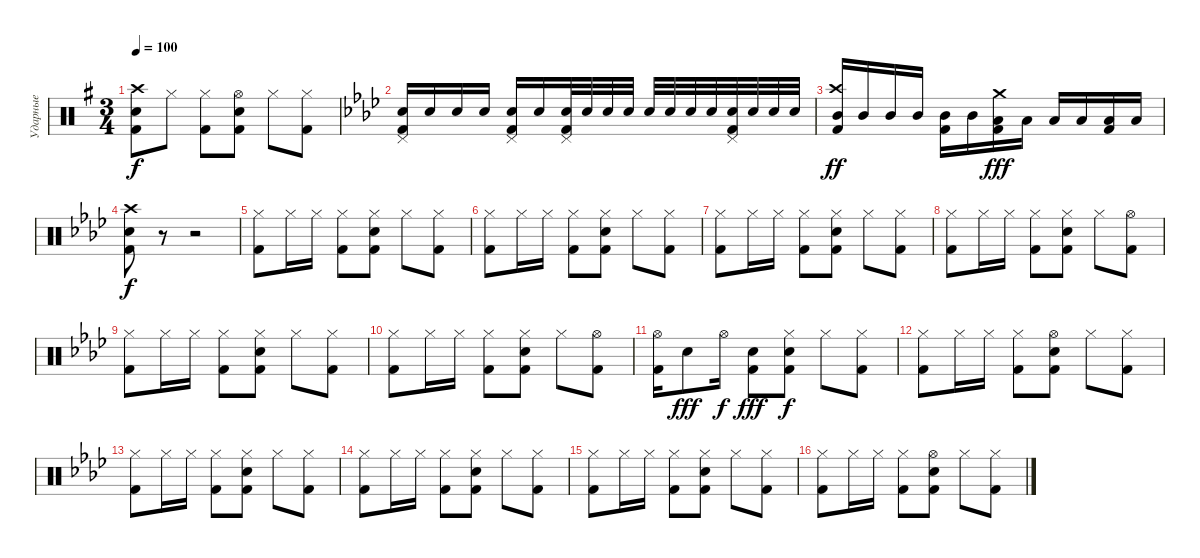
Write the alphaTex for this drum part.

\track ("Ударные" "Ударные") {instrument percussion}
\staff {score}
\articulation defaults
\ts (3 4)
\tempo 100
\clef neutral
\ks eminor
("Snare (hit) 2" "Kick (hit) 2" "Crash high (hit)").8{dy f} "Hi-Hat (closed)".8 ("Kick (hit) 2" "Hi-Hat (closed)").8 ("Snare (hit) 2" "Kick (hit) 2" "Hi-Hat (open)").8 "Hi-Hat (closed)".8 ("Kick (hit) 2" "Hi-Hat (closed)").8 |
\ks fminor
("Snare (hit) 2" "Kick (hit) 2" "Pedal Hi-Hat (hit)").16 "Snare (hit) 2".16 "Snare (hit) 2".16 "Snare (hit) 2".16 ("Snare (hit) 2" "Kick (hit) 2" "Pedal Hi-Hat (hit)").16 "Snare (hit) 2".16 ("Snare (hit) 2" "Kick (hit) 2" "Pedal Hi-Hat (hit)").32 "Snare (hit) 2".32 "Snare (hit) 2".32 "Snare (hit) 2".32 "Snare (hit) 2".32 "Snare (hit) 2".32 "Snare (hit) 2".32 "Snare (hit) 2".32 ("Snare (hit) 2" "Kick (hit) 2" "Pedal Hi-Hat (hit)").32 "Snare (hit) 2".32 "Snare (hit) 2".32 "Snare (hit) 2".32 |
("Mid Tom (hit)" "Kick (hit) 2" "Crash high (hit)").16{dy ff} "Mid Tom (hit)".16 "Mid Tom (hit)".16 "Mid Tom (hit)".16 ("Mid Tom (hit)" "Kick (hit) 2").16 "Mid Tom (hit)".16 ("Low Tom (hit)" "Kick (hit) 2" "Crash medium (hit)").16{dy fff} "Low Tom (hit)".16 "Low Tom (hit)".16 "Low Tom (hit)".16 ("Low Tom (hit)" "Kick (hit) 2").16 "Low Tom (hit)".16 |
("Snare (hit) 2" "Kick (hit) 2" "Crash high (hit)").8{dy f} r.8 r.2 |
("Kick (hit) 2" "Hi-Hat (closed)").8 "Hi-Hat (closed)".16 "Hi-Hat (closed)".16 ("Kick (hit) 2" "Hi-Hat (closed)").8 ("Snare (hit) 2" "Kick (hit) 2" "Hi-Hat (closed)").8 "Hi-Hat (closed)".8 ("Kick (hit) 2" "Hi-Hat (closed)").8 |
("Kick (hit) 2" "Hi-Hat (closed)").8 "Hi-Hat (closed)".16 "Hi-Hat (closed)".16 ("Kick (hit) 2" "Hi-Hat (closed)").8 ("Snare (hit) 2" "Kick (hit) 2" "Hi-Hat (closed)").8 "Hi-Hat (closed)".8 ("Kick (hit) 2" "Hi-Hat (closed)").8 |
("Kick (hit) 2" "Hi-Hat (closed)").8 "Hi-Hat (closed)".16 "Hi-Hat (closed)".16 ("Kick (hit) 2" "Hi-Hat (closed)").8 ("Snare (hit) 2" "Kick (hit) 2" "Hi-Hat (closed)").8 "Hi-Hat (closed)".8 ("Kick (hit) 2" "Hi-Hat (closed)").8 |
("Kick (hit) 2" "Hi-Hat (closed)").8 "Hi-Hat (closed)".16 "Hi-Hat (closed)".16 ("Kick (hit) 2" "Hi-Hat (closed)").8 ("Snare (hit) 2" "Kick (hit) 2" "Hi-Hat (closed)").8 "Hi-Hat (closed)".8 ("Kick (hit) 2" "Hi-Hat (open)").8 |
("Kick (hit) 2" "Hi-Hat (closed)").8 "Hi-Hat (closed)".16 "Hi-Hat (closed)".16 ("Kick (hit) 2" "Hi-Hat (closed)").8 ("Snare (hit) 2" "Kick (hit) 2" "Hi-Hat (closed)").8 "Hi-Hat (closed)".8 ("Kick (hit) 2" "Hi-Hat (closed)").8 |
("Kick (hit) 2" "Hi-Hat (closed)").8 "Hi-Hat (closed)".16 "Hi-Hat (closed)".16 ("Kick (hit) 2" "Hi-Hat (closed)").8 ("Snare (hit) 2" "Kick (hit) 2" "Hi-Hat (closed)").8 "Hi-Hat (closed)".8 ("Kick (hit) 2" "Hi-Hat (open)").8 |
("Kick (hit) 2" "Hi-Hat (open)").16 "Snare (hit) 2".8{dy fff} "Hi-Hat (open)".16{dy f} ("Snare (hit) 2" "Kick (hit) 2").8{dy fff} ("Snare (hit) 2" "Kick (hit) 2" "Hi-Hat (closed)").8{dy f} "Hi-Hat (closed)".8 ("Kick (hit) 2" "Hi-Hat (closed)").8 |
("Kick (hit) 2" "Hi-Hat (closed)").8 "Hi-Hat (closed)".16 "Hi-Hat (closed)".16 ("Kick (hit) 2" "Hi-Hat (closed)").8 ("Snare (hit) 2" "Kick (hit) 2" "Hi-Hat (open)").8 "Hi-Hat (closed)".8 ("Kick (hit) 2" "Hi-Hat (closed)").8 |
("Kick (hit) 2" "Hi-Hat (closed)").8 "Hi-Hat (closed)".16 "Hi-Hat (closed)".16 ("Kick (hit) 2" "Hi-Hat (closed)").8 ("Snare (hit) 2" "Kick (hit) 2" "Hi-Hat (closed)").8 "Hi-Hat (closed)".8 ("Kick (hit) 2" "Hi-Hat (closed)").8 |
("Kick (hit) 2" "Hi-Hat (closed)").8 "Hi-Hat (closed)".16 "Hi-Hat (closed)".16 ("Kick (hit) 2" "Hi-Hat (closed)").8 ("Snare (hit) 2" "Kick (hit) 2" "Hi-Hat (closed)").8 "Hi-Hat (closed)".8 ("Kick (hit) 2" "Hi-Hat (closed)").8 |
("Kick (hit) 2" "Hi-Hat (closed)").8 "Hi-Hat (closed)".16 "Hi-Hat (closed)".16 ("Kick (hit) 2" "Hi-Hat (closed)").8 ("Snare (hit) 2" "Kick (hit) 2" "Hi-Hat (closed)").8 "Hi-Hat (closed)".8 ("Kick (hit) 2" "Hi-Hat (closed)").8 |
("Kick (hit) 2" "Hi-Hat (closed)").8 "Hi-Hat (closed)".16 "Hi-Hat (closed)".16 ("Kick (hit) 2" "Hi-Hat (closed)").8 ("Snare (hit) 2" "Kick (hit) 2" "Hi-Hat (open)").8 "Hi-Hat (closed)".8 ("Kick (hit) 2" "Hi-Hat (closed)").8
